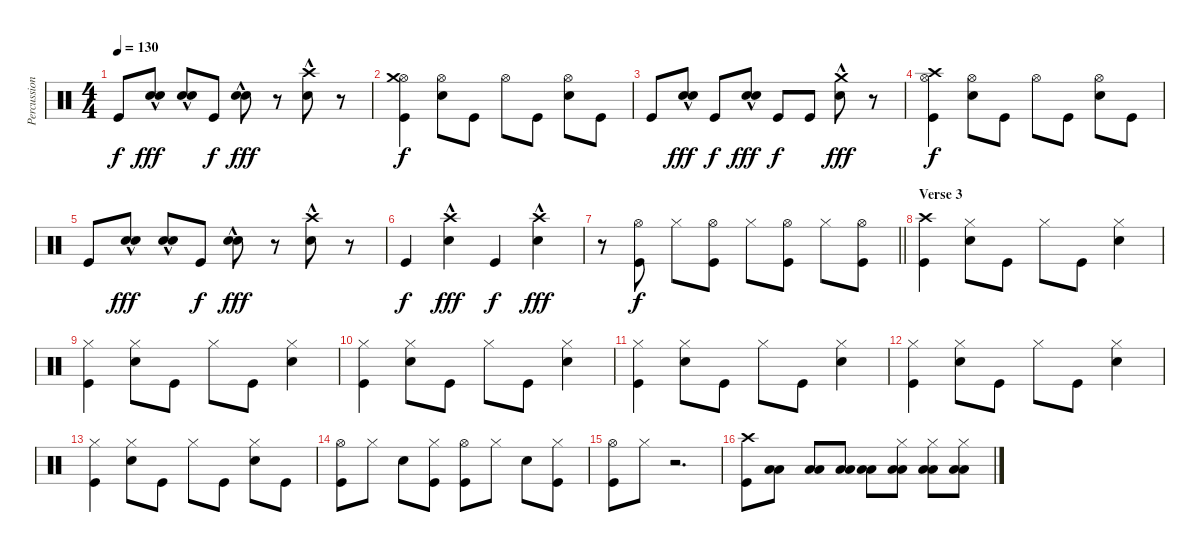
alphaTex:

\track ("Percussion 1" "Percussion") {instrument percussion}
\staff {score}
\articulation defaults
\ts (4 4)
\tempo 130
\clef neutral
\ks c "Kick (hit)".8{dy f}
("Electric Snare (hit)"{hac} "Electric Snare (hit)"{hac}).8{bd 60 dy fff} ("Electric Snare (hit)"{hac} "Electric Snare (hit)"{hac}).8{bd 60} "Kick (hit)".8{dy f} ("Electric Snare (hit)"{hac} "Electric Snare (hit)"{hac}).8{bd 60 dy fff} r.8 ("Crash high (hit)"{hac} "Electric Snare (hit)"{hac}).8 r.8 |
("Hi-Hat (open)" "Crash medium (hit)" "Kick (hit)").4{dy f} ("Hi-Hat (open)" "Electric Snare (hit)").8 "Kick (hit)".8 "Hi-Hat (open)".8 "Kick (hit)".8 ("Hi-Hat (open)" "Electric Snare (hit)").8 "Kick (hit)".8 |
"Kick (hit)".8 ("Electric Snare (hit)"{hac} "Electric Snare (hit)"{hac}).8{bd 60 dy fff} "Kick (hit)".8{dy f} ("Electric Snare (hit)"{hac} "Electric Snare (hit)"{hac}).8{bd 60 dy fff} "Kick (hit)".8{dy f} "Kick (hit)".8 ("Electric Snare (hit)"{hac} "Crash medium (hit)"{hac}).8{dy fff} r.8 |
("Hi-Hat (open)" "Crash high (hit)" "Kick (hit)").4{dy f} ("Hi-Hat (open)" "Electric Snare (hit)").8 "Kick (hit)".8 "Hi-Hat (open)".8 "Kick (hit)".8 ("Hi-Hat (open)" "Electric Snare (hit)").8 "Kick (hit)".8 |
"Kick (hit)".8 ("Electric Snare (hit)"{hac} "Electric Snare (hit)"{hac}).8{bd 60 dy fff} ("Electric Snare (hit)"{hac} "Electric Snare (hit)"{hac}).8{bd 60} "Kick (hit)".8{dy f} ("Electric Snare (hit)"{hac} "Electric Snare (hit)"{hac}).8{bd 60 dy fff} r.8 ("Crash high (hit)"{hac} "Electric Snare (hit)"{hac}).8 r.8 |
"Kick (hit)".4{dy f} ("Electric Snare (hit)"{hac} "Crash high (hit)"{hac}).4{dy fff} "Kick (hit)".4{dy f} ("Electric Snare (hit)"{hac} "Crash high (hit)"{hac}).4{dy fff} |
\barLineRight lightlight
r.8 ("Hi-Hat (open)" "Kick (hit)").8{dy f} "Hi-Hat (closed)".8 ("Hi-Hat (open)" "Kick (hit)").8 "Hi-Hat (closed)".8 ("Hi-Hat (open)" "Kick (hit)").8 "Hi-Hat (closed)".8 ("Hi-Hat (open)" "Kick (hit)").8 |
\section ("" "Verse 3")
("Crash high (hit)" "Kick (hit)").4 ("Hi-Hat (closed)" "Electric Snare (hit)").8 "Kick (hit)".8 "Hi-Hat (closed)".8 "Kick (hit)".8 ("Hi-Hat (closed)" "Electric Snare (hit)").4 |
("Hi-Hat (closed)" "Kick (hit)").4 ("Hi-Hat (closed)" "Electric Snare (hit)").8 "Kick (hit)".8 "Hi-Hat (closed)".8 "Kick (hit)".8 ("Hi-Hat (closed)" "Electric Snare (hit)").4 |
("Hi-Hat (closed)" "Kick (hit)").4 ("Hi-Hat (closed)" "Electric Snare (hit)").8 "Kick (hit)".8 "Hi-Hat (closed)".8 "Kick (hit)".8 ("Hi-Hat (closed)" "Electric Snare (hit)").4 |
("Hi-Hat (closed)" "Kick (hit)").4 ("Hi-Hat (closed)" "Electric Snare (hit)").8 "Kick (hit)".8 "Hi-Hat (closed)".8 "Kick (hit)".8 ("Hi-Hat (closed)" "Electric Snare (hit)").4 |
("Hi-Hat (closed)" "Kick (hit)").4 ("Hi-Hat (closed)" "Electric Snare (hit)").8 "Kick (hit)".8 "Hi-Hat (closed)".8 "Kick (hit)".8 ("Hi-Hat (closed)" "Electric Snare (hit)").4 |
("Hi-Hat (closed)" "Kick (hit)").4 ("Hi-Hat (closed)" "Electric Snare (hit)").8 "Kick (hit)".8 "Hi-Hat (closed)".8 "Kick (hit)".8 ("Hi-Hat (closed)" "Electric Snare (hit)").8 "Kick (hit)".8 |
("Hi-Hat (open)" "Kick (hit)").8 "Hi-Hat (closed)".8 "Electric Snare (hit)".8 ("Hi-Hat (closed)" "Kick (hit)").8 ("Hi-Hat (open)" "Kick (hit)").8 "Hi-Hat (closed)".8 "Electric Snare (hit)".8 ("Hi-Hat (closed)" "Kick (hit)").8 |
("Hi-Hat (open)" "Kick (hit)").8 "Hi-Hat (closed)".8 r.2{d} |
("Crash high (hit)" "Kick (hit)").8 ("Low Tom (hit)" "Low Floor Tom (hit)").8 ("Low Tom (hit)" "Low Floor Tom (hit)").8 ("Low Tom (hit)" "Low Floor Tom (hit)").8 ("Low Tom (hit)" "Low Floor Tom (hit)").8 ("Hi-Hat (closed)" "Low Tom (hit)" "Low Floor Tom (hit)").8 ("Hi-Hat (closed)" "Low Tom (hit)" "Low Floor Tom (hit)").8 ("Hi-Hat (closed)" "Low Tom (hit)" "Low Floor Tom (hit)").8
